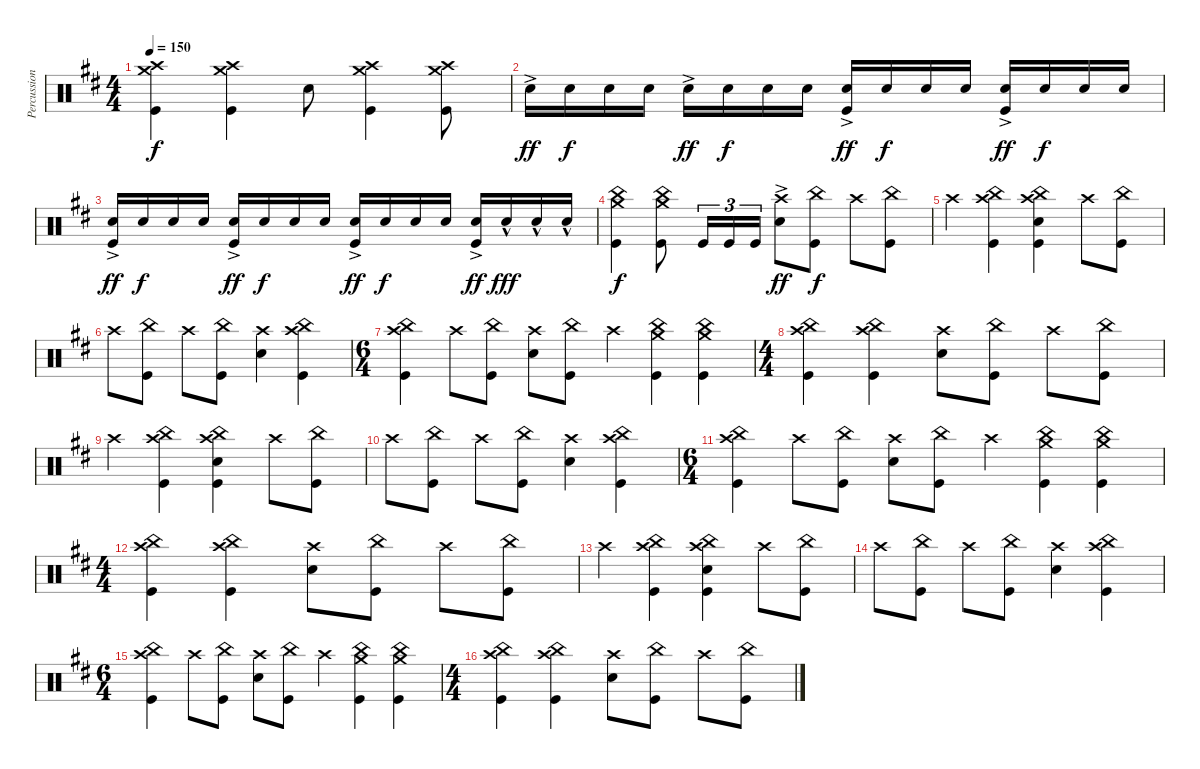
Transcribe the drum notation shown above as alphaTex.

\track ("Percussion" "Percussion") {instrument percussion}
\staff {score}
\articulation defaults
\ts (4 4)
\tempo 150
\clef neutral
\ks bminor
("Crash medium (hit)" "Crash high (hit)" "Kick (hit)").4{dy f} ("Crash medium (hit)" "Crash high (hit)" "Kick (hit)").4 "Electric Snare (hit)".8 ("Crash medium (hit)" "Crash high (hit)" "Kick (hit)").4 ("Crash medium (hit)" "Crash high (hit)" "Kick (hit)").8 |
"Electric Snare (hit)"{ac}.16{dy ff volume 9} "Electric Snare (hit)".16{dy f} "Electric Snare (hit)".16 "Electric Snare (hit)".16 "Electric Snare (hit)"{ac}.16{dy ff volume 13} "Electric Snare (hit)".16{dy f} "Electric Snare (hit)".16 "Electric Snare (hit)".16 ("Electric Snare (hit)"{ac} "Kick (hit)").16{dy ff} "Electric Snare (hit)".16{dy f} "Electric Snare (hit)".16 "Electric Snare (hit)".16 ("Electric Snare (hit)"{ac} "Kick (hit)").16{dy ff} "Electric Snare (hit)".16{dy f} "Electric Snare (hit)".16 "Electric Snare (hit)".16 |
("Electric Snare (hit)"{ac} "Kick (hit)").16{dy ff} "Electric Snare (hit)".16{dy f} "Electric Snare (hit)".16 "Electric Snare (hit)".16 ("Electric Snare (hit)"{ac} "Kick (hit)").16{dy ff} "Electric Snare (hit)".16{dy f} "Electric Snare (hit)".16 "Electric Snare (hit)".16 ("Electric Snare (hit)"{ac} "Kick (hit)").16{dy ff} "Electric Snare (hit)".16{dy f} "Electric Snare (hit)".16 "Electric Snare (hit)".16 ("Electric Snare (hit)"{ac} "Kick (hit)").16{dy ff} "Electric Snare (hit)"{hac}.16{dy fff} "Electric Snare (hit)"{hac}.16 "Electric Snare (hit)"{hac}.16 |
("Crash medium (hit)" "China (hit)" "Kick (hit)").4{dy f} ("Crash medium (hit)" "China (hit)" "Kick (hit)").8{beam split} "Kick (hit)".16{tu (3 2)} "Kick (hit)".16{tu (3 2)} "Kick (hit)".16{tu (3 2)} ("Crash high (hit)" "Electric Snare (hit)"{ac}).8{dy ff} ("China (hit)" "Kick (hit)").8{dy f} "Crash high (hit)".8 ("China (hit)" "Kick (hit)").8 |
"Crash high (hit)".4 ("Crash high (hit)" "China (hit)" "Kick (hit)").4 ("Crash high (hit)" "China (hit)" "Electric Snare (hit)" "Kick (hit)").4 "Crash high (hit)".8 ("China (hit)" "Kick (hit)").8 |
"Crash high (hit)".8 ("China (hit)" "Kick (hit)").8 "Crash high (hit)".8 ("China (hit)" "Kick (hit)").8 ("Crash high (hit)" "Electric Snare (hit)").4 ("Crash high (hit)" "China (hit)" "Kick (hit)").4 |
\ts (6 4)
("Crash high (hit)" "China (hit)" "Kick (hit)").4 "Crash high (hit)".8 ("China (hit)" "Kick (hit)").8 ("Crash high (hit)" "Electric Snare (hit)").8 ("China (hit)" "Kick (hit)").8 "Crash high (hit)".4 ("Crash medium (hit)" "China (hit)" "Kick (hit)").4 ("Crash medium (hit)" "China (hit)" "Kick (hit)").4 |
\ts (4 4)
("Crash high (hit)" "China (hit)" "Kick (hit)").4 ("Crash high (hit)" "China (hit)" "Kick (hit)").4 ("Crash high (hit)" "Electric Snare (hit)").8 ("China (hit)" "Kick (hit)").8 "Crash high (hit)".8 ("China (hit)" "Kick (hit)").8 |
"Crash high (hit)".4 ("Crash high (hit)" "China (hit)" "Kick (hit)").4 ("Crash high (hit)" "China (hit)" "Electric Snare (hit)" "Kick (hit)").4 "Crash high (hit)".8 ("China (hit)" "Kick (hit)").8 |
"Crash high (hit)".8 ("China (hit)" "Kick (hit)").8 "Crash high (hit)".8 ("China (hit)" "Kick (hit)").8 ("Crash high (hit)" "Electric Snare (hit)").4 ("Crash high (hit)" "China (hit)" "Kick (hit)").4 |
\ts (6 4)
("Crash high (hit)" "China (hit)" "Kick (hit)").4 "Crash high (hit)".8 ("China (hit)" "Kick (hit)").8 ("Crash high (hit)" "Electric Snare (hit)").8 ("China (hit)" "Kick (hit)").8 "Crash high (hit)".4 ("Crash medium (hit)" "China (hit)" "Kick (hit)").4 ("Crash medium (hit)" "China (hit)" "Kick (hit)").4 |
\ts (4 4)
("Crash high (hit)" "China (hit)" "Kick (hit)").4 ("Crash high (hit)" "China (hit)" "Kick (hit)").4 ("Crash high (hit)" "Electric Snare (hit)").8 ("China (hit)" "Kick (hit)").8 "Crash high (hit)".8 ("China (hit)" "Kick (hit)").8 |
"Crash high (hit)".4 ("Crash high (hit)" "China (hit)" "Kick (hit)").4 ("Crash high (hit)" "China (hit)" "Electric Snare (hit)" "Kick (hit)").4 "Crash high (hit)".8 ("China (hit)" "Kick (hit)").8 |
"Crash high (hit)".8 ("China (hit)" "Kick (hit)").8 "Crash high (hit)".8 ("China (hit)" "Kick (hit)").8 ("Crash high (hit)" "Electric Snare (hit)").4 ("Crash high (hit)" "China (hit)" "Kick (hit)").4 |
\ts (6 4)
("Crash high (hit)" "China (hit)" "Kick (hit)").4 "Crash high (hit)".8 ("China (hit)" "Kick (hit)").8 ("Crash high (hit)" "Electric Snare (hit)").8 ("China (hit)" "Kick (hit)").8 "Crash high (hit)".4 ("Crash medium (hit)" "China (hit)" "Kick (hit)").4 ("Crash medium (hit)" "China (hit)" "Kick (hit)").4 |
\ts (4 4)
("Crash high (hit)" "China (hit)" "Kick (hit)").4 ("Crash high (hit)" "China (hit)" "Kick (hit)").4 ("Crash high (hit)" "Electric Snare (hit)").8 ("China (hit)" "Kick (hit)").8 "Crash high (hit)".8 ("China (hit)" "Kick (hit)").8
